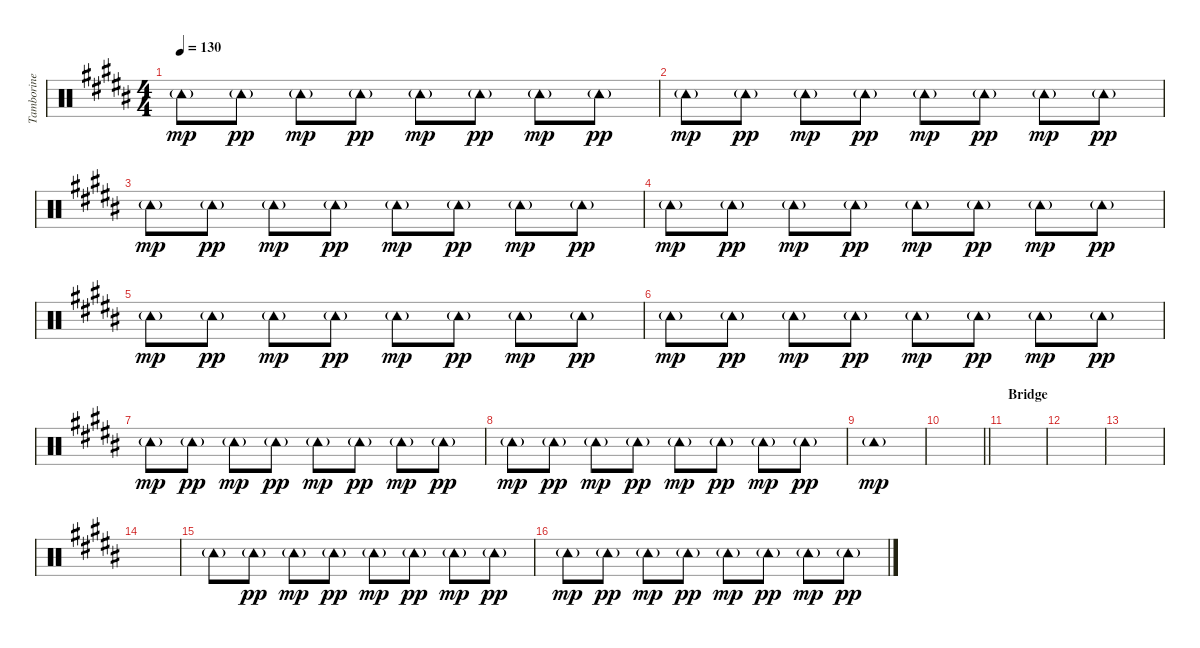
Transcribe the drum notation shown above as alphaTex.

\track ("Tamborine" "Tamborine") {instrument percussion}
\staff {score}
\articulation defaults
\ts (4 4)
\tempo 130
\clef neutral
\ks b "Tambourine (hit)"{g}.8{dy mp} "Tambourine (hit)"{g}.8{dy pp} "Tambourine (hit)"{g}.8{dy mp} "Tambourine (hit)"{g}.8{dy pp} "Tambourine (hit)"{g}.8{dy mp} "Tambourine (hit)"{g}.8{dy pp} "Tambourine (hit)"{g}.8{dy mp} "Tambourine (hit)"{g}.8{dy pp}
|
"Tambourine (hit)"{g}.8{dy mp} "Tambourine (hit)"{g}.8{dy pp} "Tambourine (hit)"{g}.8{dy mp} "Tambourine (hit)"{g}.8{dy pp} "Tambourine (hit)"{g}.8{dy mp} "Tambourine (hit)"{g}.8{dy pp} "Tambourine (hit)"{g}.8{dy mp} "Tambourine (hit)"{g}.8{dy pp} |
"Tambourine (hit)"{g}.8{dy mp} "Tambourine (hit)"{g}.8{dy pp} "Tambourine (hit)"{g}.8{dy mp} "Tambourine (hit)"{g}.8{dy pp} "Tambourine (hit)"{g}.8{dy mp} "Tambourine (hit)"{g}.8{dy pp} "Tambourine (hit)"{g}.8{dy mp} "Tambourine (hit)"{g}.8{dy pp} |
"Tambourine (hit)"{g}.8{dy mp} "Tambourine (hit)"{g}.8{dy pp} "Tambourine (hit)"{g}.8{dy mp} "Tambourine (hit)"{g}.8{dy pp} "Tambourine (hit)"{g}.8{dy mp} "Tambourine (hit)"{g}.8{dy pp} "Tambourine (hit)"{g}.8{dy mp} "Tambourine (hit)"{g}.8{dy pp} |
"Tambourine (hit)"{g}.8{dy mp} "Tambourine (hit)"{g}.8{dy pp} "Tambourine (hit)"{g}.8{dy mp} "Tambourine (hit)"{g}.8{dy pp} "Tambourine (hit)"{g}.8{dy mp} "Tambourine (hit)"{g}.8{dy pp} "Tambourine (hit)"{g}.8{dy mp} "Tambourine (hit)"{g}.8{dy pp} |
"Tambourine (hit)"{g}.8{dy mp} "Tambourine (hit)"{g}.8{dy pp} "Tambourine (hit)"{g}.8{dy mp} "Tambourine (hit)"{g}.8{dy pp} "Tambourine (hit)"{g}.8{dy mp} "Tambourine (hit)"{g}.8{dy pp} "Tambourine (hit)"{g}.8{dy mp} "Tambourine (hit)"{g}.8{dy pp} |
"Tambourine (hit)"{g}.8{dy mp} "Tambourine (hit)"{g}.8{dy pp} "Tambourine (hit)"{g}.8{dy mp} "Tambourine (hit)"{g}.8{dy pp} "Tambourine (hit)"{g}.8{dy mp} "Tambourine (hit)"{g}.8{dy pp} "Tambourine (hit)"{g}.8{dy mp} "Tambourine (hit)"{g}.8{dy pp} |
"Tambourine (hit)"{g}.8{dy mp} "Tambourine (hit)"{g}.8{dy pp} "Tambourine (hit)"{g}.8{dy mp} "Tambourine (hit)"{g}.8{dy pp} "Tambourine (hit)"{g}.8{dy mp} "Tambourine (hit)"{g}.8{dy pp} "Tambourine (hit)"{g}.8{dy mp} "Tambourine (hit)"{g}.8{dy pp} |
"Tambourine (hit)"{g}.1{dy mp} |
\barLineRight lightlight
|
\section ("" "Bridge")
|
|
|
|
"Tambourine (hit)"{g}.8 "Tambourine (hit)"{g}.8{dy pp} "Tambourine (hit)"{g}.8{dy mp} "Tambourine (hit)"{g}.8{dy pp} "Tambourine (hit)"{g}.8{dy mp} "Tambourine (hit)"{g}.8{dy pp} "Tambourine (hit)"{g}.8{dy mp} "Tambourine (hit)"{g}.8{dy pp} |
"Tambourine (hit)"{g}.8{dy mp} "Tambourine (hit)"{g}.8{dy pp} "Tambourine (hit)"{g}.8{dy mp} "Tambourine (hit)"{g}.8{dy pp} "Tambourine (hit)"{g}.8{dy mp} "Tambourine (hit)"{g}.8{dy pp} "Tambourine (hit)"{g}.8{dy mp} "Tambourine (hit)"{g}.8{dy pp}
